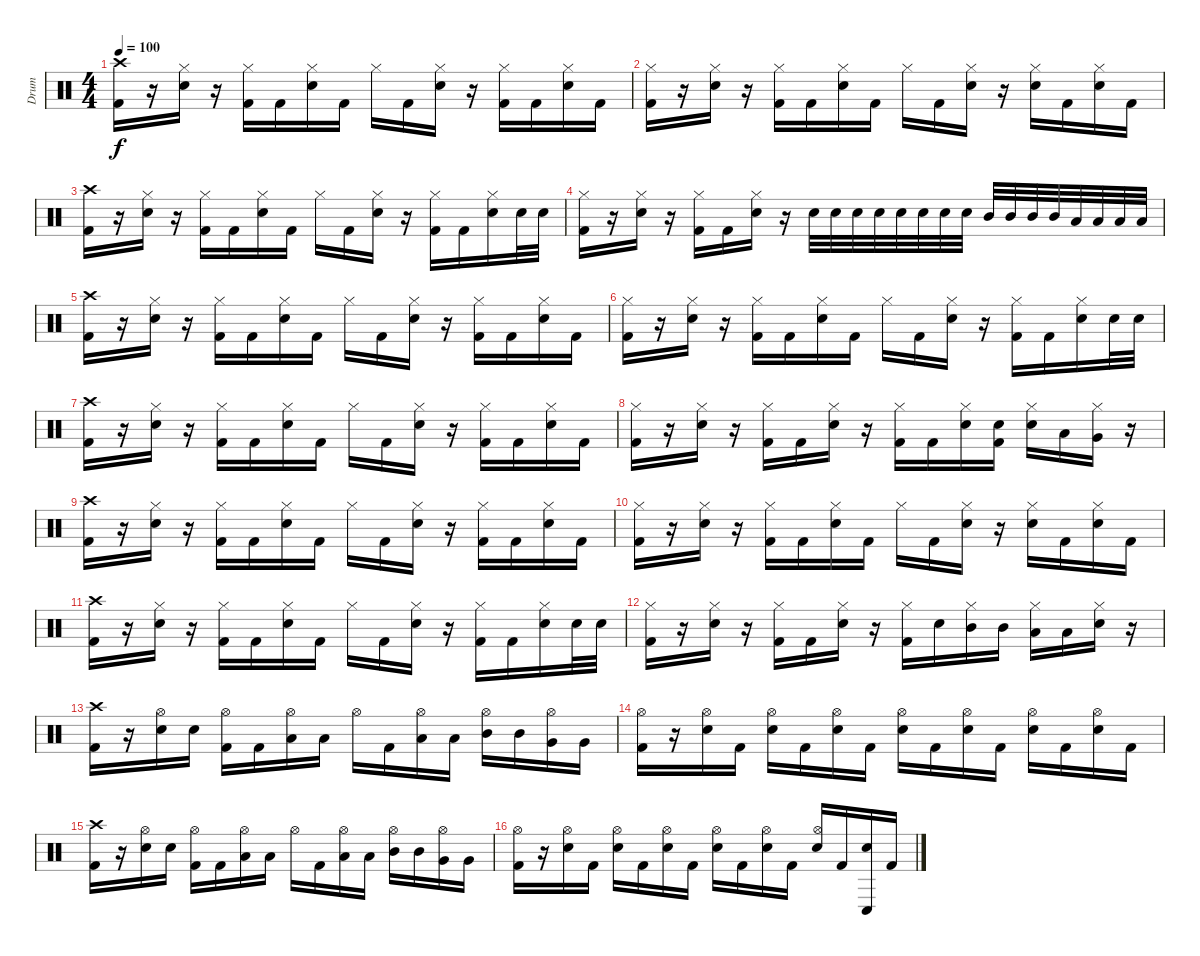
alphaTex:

\track ("Drum" "Drum") {instrument percussion}
\staff {score}
\articulation defaults
\ts (4 4)
\tempo 100
\clef neutral
\ks c
("Crash high (hit)" "Kick (hit) 2").16{dy f} r.16 ("Hi-Hat (closed)" "Electric Snare (hit)").16 r.16 ("Hi-Hat (closed)" "Kick (hit) 2").16 "Kick (hit) 2".16 ("Hi-Hat (closed)" "Electric Snare (hit)").16 "Kick (hit) 2".16 "Hi-Hat (closed)".16 "Kick (hit) 2".16 ("Hi-Hat (closed)" "Electric Snare (hit)").16 r.16 ("Hi-Hat (closed)" "Kick (hit) 2").16 "Kick (hit) 2".16 ("Hi-Hat (closed)" "Electric Snare (hit)").16 "Kick (hit) 2".16 |
("Hi-Hat (closed)" "Kick (hit) 2").16 r.16 ("Hi-Hat (closed)" "Electric Snare (hit)").16 r.16 ("Hi-Hat (closed)" "Kick (hit) 2").16 "Kick (hit) 2".16 ("Hi-Hat (closed)" "Electric Snare (hit)").16 "Kick (hit) 2".16 "Hi-Hat (closed)".16 "Kick (hit) 2".16 ("Hi-Hat (closed)" "Electric Snare (hit)").16 r.16 ("Hi-Hat (closed)" "Electric Snare (hit)").16 "Kick (hit) 2".16 ("Hi-Hat (closed)" "Electric Snare (hit)").16 "Kick (hit) 2".16 |
("Crash high (hit)" "Kick (hit) 2").16 r.16 ("Hi-Hat (closed)" "Electric Snare (hit)").16 r.16 ("Hi-Hat (closed)" "Kick (hit) 2").16 "Kick (hit) 2".16 ("Hi-Hat (closed)" "Electric Snare (hit)").16 "Kick (hit) 2".16 "Hi-Hat (closed)".16 "Kick (hit) 2".16 ("Hi-Hat (closed)" "Electric Snare (hit)").16 r.16 ("Hi-Hat (closed)" "Kick (hit) 2").16 "Kick (hit) 2".16 ("Hi-Hat (closed)" "Electric Snare (hit)").16 "Electric Snare (hit)".32 "Electric Snare (hit)".32 |
("Hi-Hat (closed)" "Kick (hit) 2").16 r.16 ("Hi-Hat (closed)" "Electric Snare (hit)").16 r.16 ("Hi-Hat (closed)" "Kick (hit) 2").16 "Kick (hit) 2".16 ("Hi-Hat (closed)" "Electric Snare (hit)").16 r.16 "Electric Snare (hit)".32 "Electric Snare (hit)".32 "Electric Snare (hit)".32 "Electric Snare (hit)".32 "Electric Snare (hit)".32 "Electric Snare (hit)".32 "Electric Snare (hit)".32 "Electric Snare (hit)".32 "Mid Tom (hit)".32 "Mid Tom (hit)".32 "Mid Tom (hit)".32 "Mid Tom (hit)".32 "Low Tom (hit)".32 "Low Tom (hit)".32 "Low Tom (hit)".32 "Low Tom (hit)".32 |
("Crash high (hit)" "Kick (hit) 2").16 r.16 ("Hi-Hat (closed)" "Electric Snare (hit)").16 r.16 ("Hi-Hat (closed)" "Kick (hit) 2").16 "Kick (hit) 2".16 ("Hi-Hat (closed)" "Electric Snare (hit)").16 "Kick (hit) 2".16 "Hi-Hat (closed)".16 "Kick (hit) 2".16 ("Hi-Hat (closed)" "Electric Snare (hit)").16 r.16 ("Hi-Hat (closed)" "Kick (hit) 2").16 "Kick (hit) 2".16 ("Hi-Hat (closed)" "Electric Snare (hit)").16 "Kick (hit) 2".16 |
("Hi-Hat (closed)" "Kick (hit) 2").16 r.16 ("Hi-Hat (closed)" "Electric Snare (hit)").16 r.16 ("Hi-Hat (closed)" "Kick (hit) 2").16 "Kick (hit) 2".16 ("Hi-Hat (closed)" "Electric Snare (hit)").16 "Kick (hit) 2".16 "Hi-Hat (closed)".16 "Kick (hit) 2".16 ("Hi-Hat (closed)" "Electric Snare (hit)").16 r.16 ("Hi-Hat (closed)" "Kick (hit) 2").16 "Kick (hit) 2".16 ("Hi-Hat (closed)" "Electric Snare (hit)").16 "Electric Snare (hit)".32 "Electric Snare (hit)".32 |
("Crash high (hit)" "Kick (hit) 2").16 r.16 ("Hi-Hat (closed)" "Electric Snare (hit)").16 r.16 ("Hi-Hat (closed)" "Kick (hit) 2").16 "Kick (hit) 2".16 ("Hi-Hat (closed)" "Electric Snare (hit)").16 "Kick (hit) 2".16 "Hi-Hat (closed)".16 "Kick (hit) 2".16 ("Hi-Hat (closed)" "Electric Snare (hit)").16 r.16 ("Hi-Hat (closed)" "Kick (hit) 2").16 "Kick (hit) 2".16 ("Hi-Hat (closed)" "Electric Snare (hit)").16 "Kick (hit) 2".16 |
("Hi-Hat (closed)" "Kick (hit) 2").16 r.16 ("Hi-Hat (closed)" "Electric Snare (hit)").16 r.16 ("Hi-Hat (closed)" "Kick (hit) 2").16 "Kick (hit) 2".16 ("Hi-Hat (closed)" "Electric Snare (hit)").16 r.16 ("Hi-Hat (closed)" "Kick (hit) 2").16 "Kick (hit) 2".16 ("Hi-Hat (closed)" "Electric Snare (hit)").16 ("Electric Snare (hit)" "Kick (hit) 2").16 ("Hi-Hat (closed)" "Electric Snare (hit)").16 "Low Tom (hit)".16 ("Hi-Hat (closed)" "Very Low Tom (hit)").16 r.16 |
("Crash high (hit)" "Kick (hit) 2").16 r.16 ("Hi-Hat (closed)" "Electric Snare (hit)").16 r.16 ("Hi-Hat (closed)" "Kick (hit) 2").16 "Kick (hit) 2".16 ("Hi-Hat (closed)" "Electric Snare (hit)").16 "Kick (hit) 2".16 "Hi-Hat (closed)".16 "Kick (hit) 2".16 ("Hi-Hat (closed)" "Electric Snare (hit)").16 r.16 ("Hi-Hat (closed)" "Kick (hit) 2").16 "Kick (hit) 2".16 ("Hi-Hat (closed)" "Electric Snare (hit)").16 "Kick (hit) 2".16 |
("Hi-Hat (closed)" "Kick (hit) 2").16 r.16 ("Hi-Hat (closed)" "Electric Snare (hit)").16 r.16 ("Hi-Hat (closed)" "Kick (hit) 2").16 "Kick (hit) 2".16 ("Hi-Hat (closed)" "Electric Snare (hit)").16 "Kick (hit) 2".16 "Hi-Hat (closed)".16 "Kick (hit) 2".16 ("Hi-Hat (closed)" "Electric Snare (hit)").16 r.16 ("Hi-Hat (closed)" "Electric Snare (hit)").16 "Kick (hit) 2".16 ("Hi-Hat (closed)" "Electric Snare (hit)").16 "Kick (hit) 2".16 |
("Crash high (hit)" "Kick (hit) 2").16 r.16 ("Hi-Hat (closed)" "Electric Snare (hit)").16 r.16 ("Hi-Hat (closed)" "Kick (hit) 2").16 "Kick (hit) 2".16 ("Hi-Hat (closed)" "Electric Snare (hit)").16 "Kick (hit) 2".16 "Hi-Hat (closed)".16 "Kick (hit) 2".16 ("Hi-Hat (closed)" "Electric Snare (hit)").16 r.16 ("Hi-Hat (closed)" "Kick (hit) 2").16 "Kick (hit) 2".16 ("Hi-Hat (closed)" "Electric Snare (hit)").16 "Electric Snare (hit)".32 "Electric Snare (hit)".32 |
("Hi-Hat (closed)" "Kick (hit) 2").16 r.16 ("Hi-Hat (closed)" "Electric Snare (hit)").16 r.16 ("Hi-Hat (closed)" "Kick (hit) 2").16 "Kick (hit) 2".16 ("Hi-Hat (closed)" "Electric Snare (hit)").16 r.16 ("Hi-Hat (closed)" "Kick (hit) 2").16 "Electric Snare (hit)".16 ("Hi-Hat (closed)" "Mid Tom (hit)").16 "Mid Tom (hit)".16 ("Hi-Hat (closed)" "Low Tom (hit)").16 "Low Tom (hit)".16 ("Hi-Hat (closed)" "Electric Snare (hit)").16 r.16 |
("Crash high (hit)" "Kick (hit) 2").16 r.16 ("Hi-Hat (open)" "Electric Snare (hit)").16 "Electric Snare (hit)".16 ("Hi-Hat (open)" "Kick (hit) 2").16 "Kick (hit) 2".16 ("Hi-Hat (open)" "Low Tom (hit)").16 "Low Tom (hit)".16 "Hi-Hat (open)".16 "Kick (hit) 2".16 ("Hi-Hat (open)" "Low Tom (hit)").16 "Low Tom (hit)".16 ("Hi-Hat (open)" "Mid Tom (hit)").16 "Mid Tom (hit)".16 ("Hi-Hat (open)" "Very Low Tom (hit)").16 "Very Low Tom (hit)".16 |
("Hi-Hat (open)" "Kick (hit) 2").16 r.16 ("Hi-Hat (open)" "Electric Snare (hit)").16 "Kick (hit) 2".16 ("Hi-Hat (open)" "Electric Snare (hit)").16 "Kick (hit) 2".16 ("Hi-Hat (open)" "Electric Snare (hit)").16 "Kick (hit) 2".16 ("Hi-Hat (open)" "Electric Snare (hit)").16 "Kick (hit) 2".16 ("Hi-Hat (open)" "Electric Snare (hit)").16 "Kick (hit) 2".16 ("Hi-Hat (open)" "Electric Snare (hit)").16 "Kick (hit) 2".16 ("Hi-Hat (open)" "Electric Snare (hit)").16 "Kick (hit) 2".16 |
("Crash high (hit)" "Kick (hit) 2").16 r.16 ("Hi-Hat (open)" "Electric Snare (hit)").16 "Electric Snare (hit)".16 ("Hi-Hat (open)" "Kick (hit) 2").16 "Kick (hit) 2".16 ("Hi-Hat (open)" "Low Tom (hit)").16 "Low Tom (hit)".16 "Hi-Hat (open)".16 "Kick (hit) 2".16 ("Hi-Hat (open)" "Low Tom (hit)").16 "Low Tom (hit)".16 ("Hi-Hat (open)" "Mid Tom (hit)").16 "Mid Tom (hit)".16 ("Hi-Hat (open)" "Very Low Tom (hit)").16 "Very Low Tom (hit)".16 |
("Hi-Hat (open)" "Kick (hit) 2").16 r.16 ("Hi-Hat (open)" "Electric Snare (hit)").16 "Kick (hit) 2".16 ("Hi-Hat (open)" "Electric Snare (hit)").16 "Kick (hit) 2".16 ("Hi-Hat (open)" "Electric Snare (hit)").16 "Kick (hit) 2".16 ("Hi-Hat (open)" "Electric Snare (hit)").16 "Kick (hit) 2".16 ("Hi-Hat (open)" "Electric Snare (hit)").16 "Kick (hit) 2".16 ("Hi-Hat (open)" "Electric Snare (hit)").16 "Kick (hit) 2".16 ("Conga low (hit)" "Electric Snare (hit)").16 "Kick (hit) 2".16
